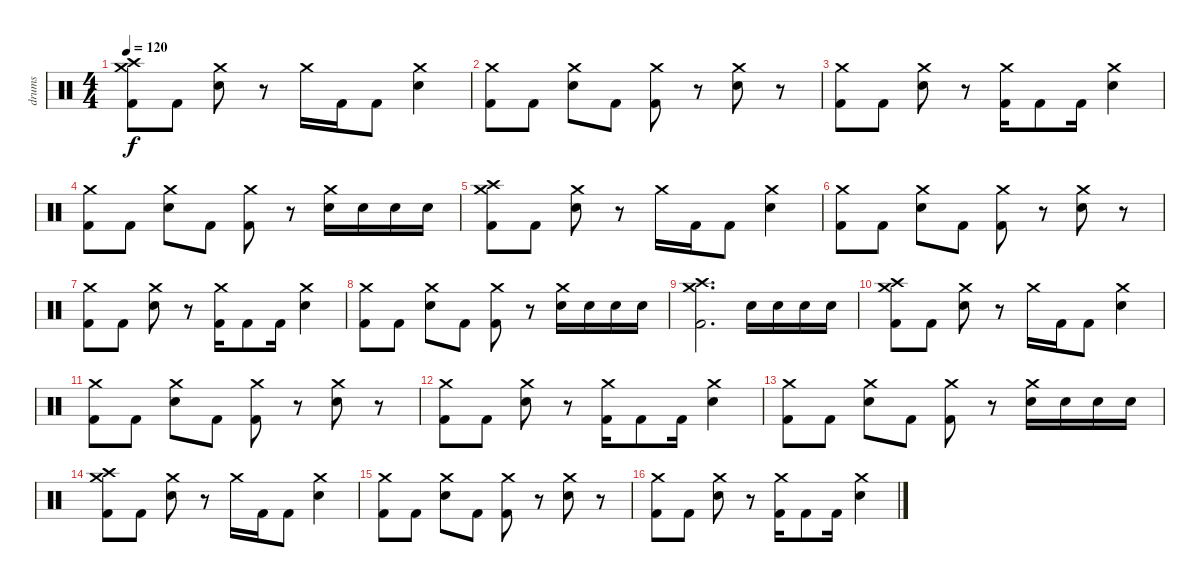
\track ("drums" "drums") {instrument percussion}
\staff {score}
\articulation defaults
\ts (4 4)
\tempo 120
\clef neutral
\ks c
("Crash medium (hit)" "Crash high (hit)" "Kick (hit) 2").8{dy f} "Kick (hit) 2".8 ("Crash medium (hit)" "Electric Snare (hit)").8 r.8 "Crash medium (hit)".16 "Kick (hit) 2".16 "Kick (hit) 2".8 ("Crash medium (hit)" "Electric Snare (hit)").4 |
("Crash medium (hit)" "Kick (hit) 2").8 "Kick (hit) 2".8 ("Crash medium (hit)" "Electric Snare (hit)").8 "Kick (hit) 2".8 ("Crash medium (hit)" "Kick (hit) 2").8 r.8 ("Crash medium (hit)" "Electric Snare (hit)").8 r.8 |
("Crash medium (hit)" "Kick (hit) 2").8 "Kick (hit) 2".8 ("Crash medium (hit)" "Electric Snare (hit)").8 r.8 ("Crash medium (hit)" "Kick (hit) 2").16 "Kick (hit) 2".8 "Kick (hit) 2".16 ("Crash medium (hit)" "Electric Snare (hit)").4 |
("Crash medium (hit)" "Kick (hit) 2").8 "Kick (hit) 2".8 ("Crash medium (hit)" "Electric Snare (hit)").8 "Kick (hit) 2".8 ("Crash medium (hit)" "Kick (hit) 2").8 r.8 ("Crash medium (hit)" "Electric Snare (hit)").16 "Electric Snare (hit)".16 "Electric Snare (hit)".16 "Electric Snare (hit)".16 |
("Crash medium (hit)" "Crash high (hit)" "Kick (hit) 2").8 "Kick (hit) 2".8 ("Crash medium (hit)" "Electric Snare (hit)").8 r.8 "Crash medium (hit)".16 "Kick (hit) 2".16 "Kick (hit) 2".8 ("Crash medium (hit)" "Electric Snare (hit)").4 |
("Crash medium (hit)" "Kick (hit) 2").8 "Kick (hit) 2".8 ("Crash medium (hit)" "Electric Snare (hit)").8 "Kick (hit) 2".8 ("Crash medium (hit)" "Kick (hit) 2").8 r.8 ("Crash medium (hit)" "Electric Snare (hit)").8 r.8 |
("Crash medium (hit)" "Kick (hit) 2").8 "Kick (hit) 2".8 ("Crash medium (hit)" "Electric Snare (hit)").8 r.8 ("Crash medium (hit)" "Kick (hit) 2").16 "Kick (hit) 2".8 "Kick (hit) 2".16 ("Crash medium (hit)" "Electric Snare (hit)").4 |
("Crash medium (hit)" "Kick (hit) 2").8 "Kick (hit) 2".8 ("Crash medium (hit)" "Electric Snare (hit)").8 "Kick (hit) 2".8 ("Crash medium (hit)" "Kick (hit) 2").8 r.8 ("Crash medium (hit)" "Electric Snare (hit)").16 "Electric Snare (hit)".16 "Electric Snare (hit)".16 "Electric Snare (hit)".16 |
("Crash medium (hit)" "Crash high (hit)" "Kick (hit) 2").2{d} "Electric Snare (hit)".16 "Electric Snare (hit)".16 "Electric Snare (hit)".16 "Electric Snare (hit)".16 |
("Crash medium (hit)" "Crash high (hit)" "Kick (hit) 2").8 "Kick (hit) 2".8 ("Crash medium (hit)" "Electric Snare (hit)").8 r.8 "Crash medium (hit)".16 "Kick (hit) 2".16 "Kick (hit) 2".8 ("Crash medium (hit)" "Electric Snare (hit)").4 |
("Crash medium (hit)" "Kick (hit) 2").8 "Kick (hit) 2".8 ("Crash medium (hit)" "Electric Snare (hit)").8 "Kick (hit) 2".8 ("Crash medium (hit)" "Kick (hit) 2").8 r.8 ("Crash medium (hit)" "Electric Snare (hit)").8 r.8 |
("Crash medium (hit)" "Kick (hit) 2").8 "Kick (hit) 2".8 ("Crash medium (hit)" "Electric Snare (hit)").8 r.8 ("Crash medium (hit)" "Kick (hit) 2").16 "Kick (hit) 2".8 "Kick (hit) 2".16 ("Crash medium (hit)" "Electric Snare (hit)").4 |
("Crash medium (hit)" "Kick (hit) 2").8 "Kick (hit) 2".8 ("Crash medium (hit)" "Electric Snare (hit)").8 "Kick (hit) 2".8 ("Crash medium (hit)" "Kick (hit) 2").8 r.8 ("Crash medium (hit)" "Electric Snare (hit)").16 "Electric Snare (hit)".16 "Electric Snare (hit)".16 "Electric Snare (hit)".16 |
("Crash medium (hit)" "Crash high (hit)" "Kick (hit) 2").8 "Kick (hit) 2".8 ("Crash medium (hit)" "Electric Snare (hit)").8 r.8 "Crash medium (hit)".16 "Kick (hit) 2".16 "Kick (hit) 2".8 ("Crash medium (hit)" "Electric Snare (hit)").4 |
("Crash medium (hit)" "Kick (hit) 2").8 "Kick (hit) 2".8 ("Crash medium (hit)" "Electric Snare (hit)").8 "Kick (hit) 2".8 ("Crash medium (hit)" "Kick (hit) 2").8 r.8 ("Crash medium (hit)" "Electric Snare (hit)").8 r.8 |
("Crash medium (hit)" "Kick (hit) 2").8 "Kick (hit) 2".8 ("Crash medium (hit)" "Electric Snare (hit)").8 r.8 ("Crash medium (hit)" "Kick (hit) 2").16 "Kick (hit) 2".8 "Kick (hit) 2".16 ("Crash medium (hit)" "Electric Snare (hit)").4
